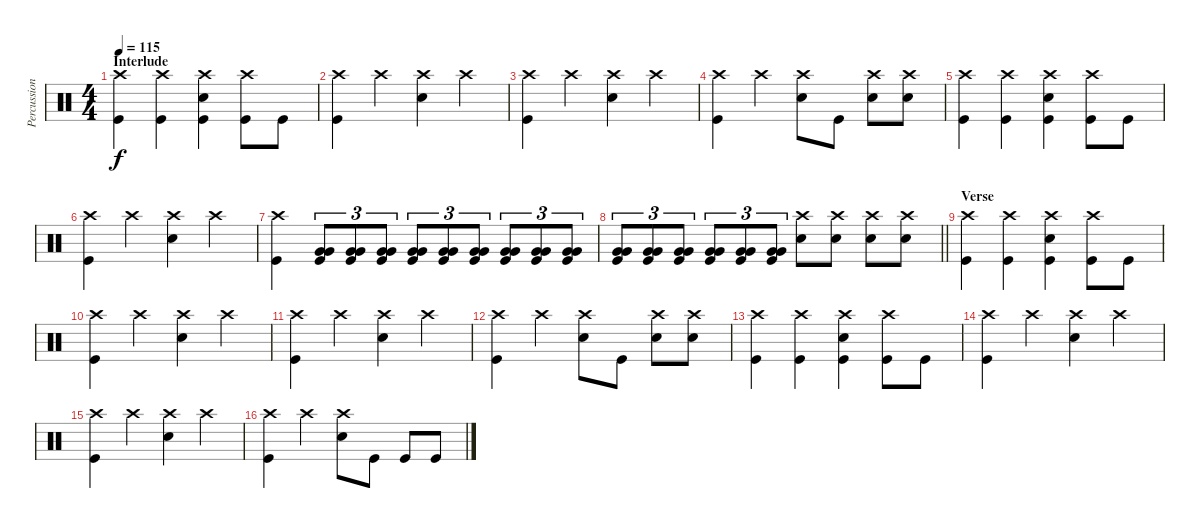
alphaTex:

\track ("Percussions" "Percussion") {instrument percussion}
\staff {score}
\articulation defaults
\ts (4 4)
\section ("" "Interlude")
\tempo 115
\clef neutral
\ks c
("Crash high (hit)" "Kick (hit)").4{dy f} ("Crash high (hit)" "Kick (hit)").4 ("Crash high (hit)" "Electric Snare (hit)" "Kick (hit)").4 ("Crash high (hit)" "Kick (hit)").8 "Kick (hit)".8 |
("Crash high (hit)" "Kick (hit)").4 "Crash high (hit)".4 ("Crash high (hit)" "Electric Snare (hit)").4 "Crash high (hit)".4 |
("Crash high (hit)" "Kick (hit)").4 "Crash high (hit)".4 ("Crash high (hit)" "Electric Snare (hit)").4 "Crash high (hit)".4 |
("Crash high (hit)" "Kick (hit)").4 "Crash high (hit)".4 ("Crash high (hit)" "Electric Snare (hit)").8 "Kick (hit)".8 ("Crash high (hit)" "Electric Snare (hit)").8 ("Crash high (hit)" "Electric Snare (hit)").8 |
("Crash high (hit)" "Kick (hit)").4 ("Crash high (hit)" "Kick (hit)").4 ("Crash high (hit)" "Electric Snare (hit)" "Kick (hit)").4 ("Crash high (hit)" "Kick (hit)").8 "Kick (hit)".8 |
("Crash high (hit)" "Kick (hit)").4 "Crash high (hit)".4 ("Crash high (hit)" "Electric Snare (hit)").4 "Crash high (hit)".4 |
("Crash high (hit)" "Kick (hit)").4 ("Very Low Tom (hit)" "Very Low Tom (hit)" "Kick (hit)").8{tu (3 2)} ("Very Low Tom (hit)" "Very Low Tom (hit)" "Kick (hit)").8{tu (3 2)} ("Very Low Tom (hit)" "Very Low Tom (hit)" "Kick (hit)").8{tu (3 2)} ("Very Low Tom (hit)" "Very Low Tom (hit)" "Kick (hit)").8{tu (3 2)} ("Very Low Tom (hit)" "Very Low Tom (hit)" "Kick (hit)").8{tu (3 2)} ("Very Low Tom (hit)" "Very Low Tom (hit)" "Kick (hit)").8{tu (3 2)} ("Very Low Tom (hit)" "Very Low Tom (hit)" "Kick (hit)").8{tu (3 2)} ("Very Low Tom (hit)" "Very Low Tom (hit)" "Kick (hit)").8{tu (3 2)} ("Very Low Tom (hit)" "Very Low Tom (hit)" "Kick (hit)").8{tu (3 2)} |
\barLineRight lightlight
("Very Low Tom (hit)" "Very Low Tom (hit)" "Kick (hit)").8{tu (3 2)} ("Very Low Tom (hit)" "Very Low Tom (hit)" "Kick (hit)").8{tu (3 2)} ("Very Low Tom (hit)" "Very Low Tom (hit)" "Kick (hit)").8{tu (3 2)} ("Very Low Tom (hit)" "Very Low Tom (hit)" "Kick (hit)").8{tu (3 2)} ("Very Low Tom (hit)" "Very Low Tom (hit)" "Kick (hit)").8{tu (3 2)} ("Very Low Tom (hit)" "Very Low Tom (hit)" "Kick (hit)").8{tu (3 2)} ("Crash high (hit)" "Electric Snare (hit)").8 ("Crash high (hit)" "Electric Snare (hit)").8 ("Crash high (hit)" "Electric Snare (hit)").8 ("Crash high (hit)" "Electric Snare (hit)").8 |
\section ("" "Verse")
("Crash high (hit)" "Kick (hit)").4 ("Crash high (hit)" "Kick (hit)").4 ("Crash high (hit)" "Electric Snare (hit)" "Kick (hit)").4 ("Crash high (hit)" "Kick (hit)").8 "Kick (hit)".8 |
("Crash high (hit)" "Kick (hit)").4 "Crash high (hit)".4 ("Crash high (hit)" "Electric Snare (hit)").4 "Crash high (hit)".4 |
("Crash high (hit)" "Kick (hit)").4 "Crash high (hit)".4 ("Crash high (hit)" "Electric Snare (hit)").4 "Crash high (hit)".4 |
("Crash high (hit)" "Kick (hit)").4 "Crash high (hit)".4 ("Crash high (hit)" "Electric Snare (hit)").8 "Kick (hit)".8 ("Crash high (hit)" "Electric Snare (hit)").8 ("Crash high (hit)" "Electric Snare (hit)").8 |
("Crash high (hit)" "Kick (hit)").4 ("Crash high (hit)" "Kick (hit)").4 ("Crash high (hit)" "Electric Snare (hit)" "Kick (hit)").4 ("Crash high (hit)" "Kick (hit)").8 "Kick (hit)".8 |
("Crash high (hit)" "Kick (hit)").4 "Crash high (hit)".4 ("Crash high (hit)" "Electric Snare (hit)").4 "Crash high (hit)".4 |
("Crash high (hit)" "Kick (hit)").4 "Crash high (hit)".4 ("Crash high (hit)" "Electric Snare (hit)").4 "Crash high (hit)".4 |
("Crash high (hit)" "Kick (hit)").4 "Crash high (hit)".4 ("Crash high (hit)" "Electric Snare (hit)").8 "Kick (hit)".8 "Kick (hit)".8 "Kick (hit)".8
